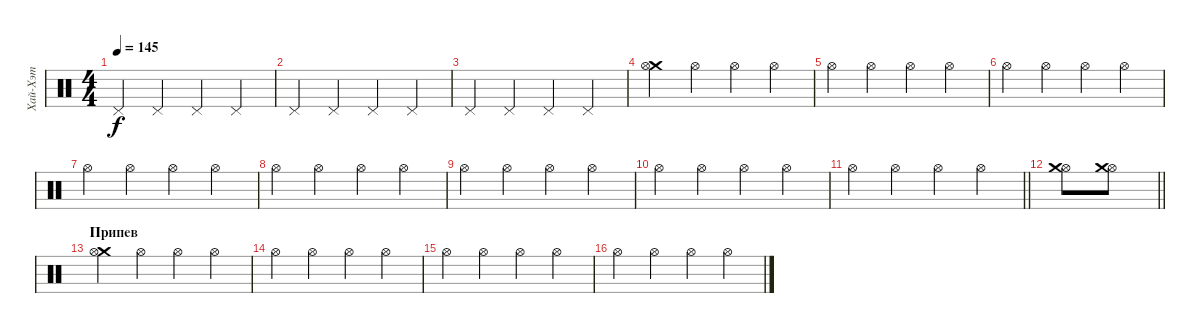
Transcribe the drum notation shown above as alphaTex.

\track ("Хай-Хэт" "Хай-Хэт") {instrument percussion}
\staff {score}
\articulation defaults
\ts (4 4)
\tempo 145
\clef neutral
\ks c "Pedal Hi-Hat (hit)".4{dy f} "Pedal Hi-Hat (hit)".4 "Pedal Hi-Hat (hit)".4 "Pedal Hi-Hat (hit)".4
|
"Pedal Hi-Hat (hit)".4 "Pedal Hi-Hat (hit)".4 "Pedal Hi-Hat (hit)".4 "Pedal Hi-Hat (hit)".4 |
"Pedal Hi-Hat (hit)".4 "Pedal Hi-Hat (hit)".4 "Pedal Hi-Hat (hit)".4 "Pedal Hi-Hat (hit)".4 |
("Crash medium (hit)" "Hi-Hat (open)").4 "Hi-Hat (open)".4 "Hi-Hat (open)".4 "Hi-Hat (open)".4 |
"Hi-Hat (open)".4 "Hi-Hat (open)".4 "Hi-Hat (open)".4 "Hi-Hat (open)".4 |
"Hi-Hat (open)".4 "Hi-Hat (open)".4 "Hi-Hat (open)".4 "Hi-Hat (open)".4 |
"Hi-Hat (open)".4 "Hi-Hat (open)".4 "Hi-Hat (open)".4 "Hi-Hat (open)".4 |
"Hi-Hat (open)".4 "Hi-Hat (open)".4 "Hi-Hat (open)".4 "Hi-Hat (open)".4 |
"Hi-Hat (open)".4 "Hi-Hat (open)".4 "Hi-Hat (open)".4 "Hi-Hat (open)".4 |
"Hi-Hat (open)".4 "Hi-Hat (open)".4 "Hi-Hat (open)".4 "Hi-Hat (open)".4 |
\barLineRight lightlight "Hi-Hat (open)".4 "Hi-Hat (open)".4 "Hi-Hat (open)".4 "Hi-Hat (open)".4
|
\barLineRight lightlight
("Hi-Hat (open)" "Crash medium (hit)").8 ("Hi-Hat (open)" "Crash medium (hit)").8 |
\section ("" "Припев")
("Crash medium (hit)" "Hi-Hat (open)").4 "Hi-Hat (open)".4 "Hi-Hat (open)".4 "Hi-Hat (open)".4 |
"Hi-Hat (open)".4 "Hi-Hat (open)".4 "Hi-Hat (open)".4 "Hi-Hat (open)".4 |
"Hi-Hat (open)".4 "Hi-Hat (open)".4 "Hi-Hat (open)".4 "Hi-Hat (open)".4 |
"Hi-Hat (open)".4 "Hi-Hat (open)".4 "Hi-Hat (open)".4 "Hi-Hat (open)".4
